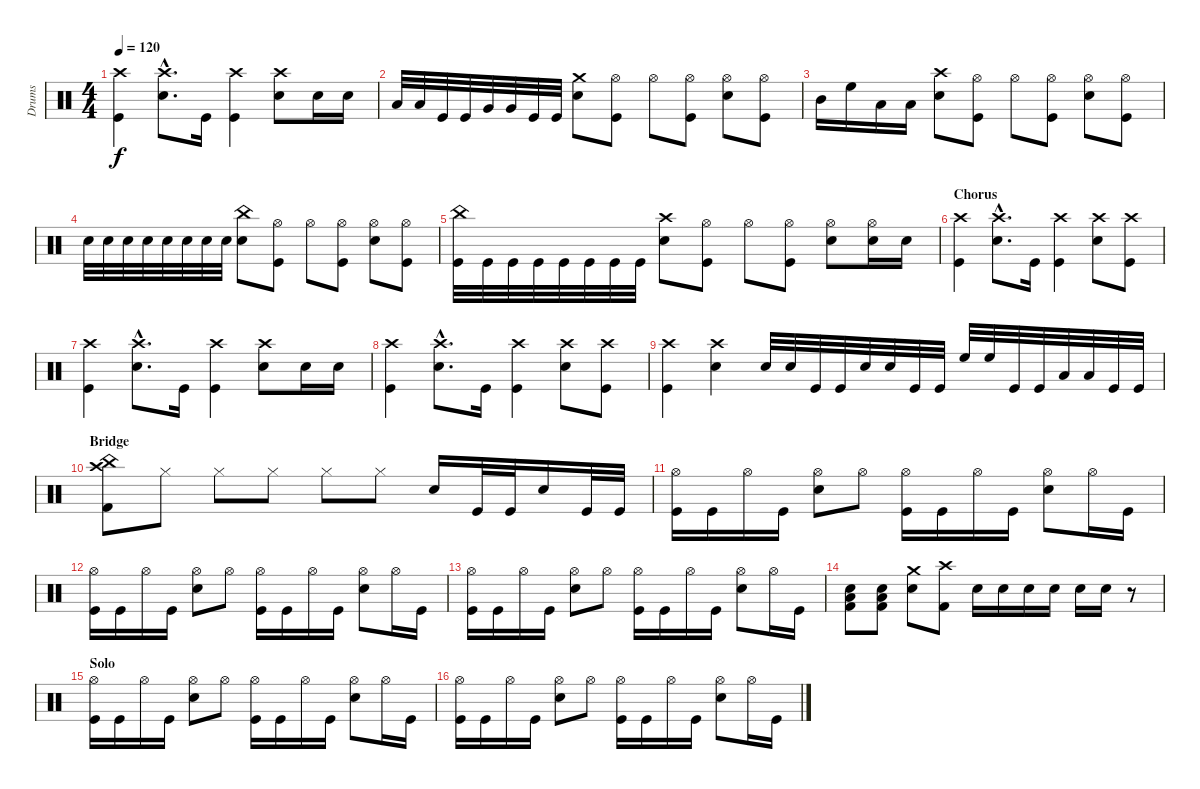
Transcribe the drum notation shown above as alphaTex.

\track ("Drums" "Drums") {instrument percussion}
\staff {score}
\articulation defaults
\ts (4 4)
\tempo 120
\clef neutral
\ks c
("Crash high (hit)" "Kick (hit)").4{dy f} ("Crash high (hit)"{hac} "Electric Snare (hit)"{hac}).8{d} "Kick (hit)".16 ("Crash high (hit)" "Kick (hit)").4 ("Crash high (hit)" "Electric Snare (hit)").8 "Electric Snare (hit)".16 "Electric Snare (hit)".16 |
"Low Tom (hit)".32 "Low Tom (hit)".32 "Kick (hit)".32 "Kick (hit)".32 "Very Low Tom (hit)".32 "Very Low Tom (hit)".32 "Kick (hit)".32 "Kick (hit)".32 ("Crash medium (hit)" "Electric Snare (hit)").8 ("Hi-Hat (open)" "Kick (hit)").8 "Hi-Hat (open)".8 ("Hi-Hat (open)" "Kick (hit)").8 ("Hi-Hat (open)" "Electric Snare (hit)").8 ("Hi-Hat (open)" "Kick (hit)").8 |
"Mid Tom (hit)".16 "High Floor Tom (hit)".16 "Low Tom (hit)".16 "Low Tom (hit)".16 ("Crash high (hit)" "Electric Snare (hit)").8 ("Hi-Hat (open)" "Kick (hit)").8 "Hi-Hat (open)".8 ("Hi-Hat (open)" "Kick (hit)").8 ("Hi-Hat (open)" "Electric Snare (hit)").8 ("Hi-Hat (open)" "Kick (hit)").8 |
"Electric Snare (hit)".32 "Electric Snare (hit)".32 "Electric Snare (hit)".32 "Electric Snare (hit)".32 "Electric Snare (hit)".32 "Electric Snare (hit)".32 "Electric Snare (hit)".32 "Electric Snare (hit)".32 ("China (hit)" "Electric Snare (hit)").8 ("Hi-Hat (open)" "Kick (hit)").8 "Hi-Hat (open)".8 ("Hi-Hat (open)" "Kick (hit)").8 ("Hi-Hat (open)" "Electric Snare (hit)").8 ("Hi-Hat (open)" "Kick (hit)").8 |
("China (hit)" "Kick (hit)").32 "Kick (hit)".32 "Kick (hit)".32 "Kick (hit)".32 "Kick (hit)".32 "Kick (hit)".32 "Kick (hit)".32 "Kick (hit)".32 ("Crash high (hit)" "Electric Snare (hit)").8 ("Hi-Hat (open)" "Kick (hit)").8 "Hi-Hat (open)".8 ("Hi-Hat (open)" "Kick (hit)").8 ("Hi-Hat (open)" "Electric Snare (hit)").8 ("Hi-Hat (open)" "Electric Snare (hit)").16 "Electric Snare (hit)".16 |
\section ("" "Chorus")
("Crash high (hit)" "Kick (hit)").4 ("Crash high (hit)"{hac} "Electric Snare (hit)"{hac}).8{d} "Kick (hit)".16 ("Crash high (hit)" "Kick (hit)").4 ("Crash high (hit)" "Electric Snare (hit)").8 ("Crash high (hit)" "Kick (hit)").8 |
("Crash high (hit)" "Kick (hit)").4 ("Crash high (hit)"{hac} "Electric Snare (hit)"{hac}).8{d} "Kick (hit)".16 ("Crash high (hit)" "Kick (hit)").4 ("Crash high (hit)" "Electric Snare (hit)").8 "Electric Snare (hit)".16 "Electric Snare (hit)".16 |
("Crash high (hit)" "Kick (hit)").4 ("Crash high (hit)"{hac} "Electric Snare (hit)"{hac}).8{d} "Kick (hit)".16 ("Crash high (hit)" "Kick (hit)").4 ("Crash high (hit)" "Electric Snare (hit)").8 ("Crash high (hit)" "Kick (hit)").8 |
("Crash high (hit)" "Kick (hit)").4 ("Crash high (hit)" "Electric Snare (hit)").4 "Electric Snare (hit)".32 "Electric Snare (hit)".32 "Kick (hit)".32 "Kick (hit)".32 "Electric Snare (hit)".32 "Electric Snare (hit)".32 "Kick (hit)".32 "Kick (hit)".32 "High Floor Tom (hit)".32 "High Floor Tom (hit)".32 "Kick (hit)".32 "Kick (hit)".32 "Low Tom (hit)".32 "Low Tom (hit)".32 "Kick (hit)".32 "Kick (hit)".32 |
\section ("" "Bridge")
("China (hit)" "Crash high (hit)" "Kick (hit) 2").8 "Hi-Hat (closed)".8 "Hi-Hat (closed)".8 "Hi-Hat (closed)".8 "Hi-Hat (closed)".8 "Hi-Hat (closed)".8 "Electric Snare (hit)".16 "Kick (hit)".32 "Kick (hit)".32 "Electric Snare (hit)".16 "Kick (hit)".32 "Kick (hit)".32 |
("Hi-Hat (open)" "Kick (hit)").16 "Kick (hit)".16 "Hi-Hat (open)".16 "Kick (hit)".16 ("Hi-Hat (open)" "Electric Snare (hit)").8 "Hi-Hat (open)".8 ("Hi-Hat (open)" "Kick (hit)").16 "Kick (hit)".16 "Hi-Hat (open)".16 "Kick (hit)".16 ("Hi-Hat (open)" "Electric Snare (hit)").8 "Hi-Hat (open)".16 "Kick (hit)".16 |
("Hi-Hat (open)" "Kick (hit)").16 "Kick (hit)".16 "Hi-Hat (open)".16 "Kick (hit)".16 ("Hi-Hat (open)" "Electric Snare (hit)").8 "Hi-Hat (open)".8 ("Hi-Hat (open)" "Kick (hit)").16 "Kick (hit)".16 "Hi-Hat (open)".16 "Kick (hit)".16 ("Hi-Hat (open)" "Electric Snare (hit)").8 "Hi-Hat (open)".16 "Kick (hit)".16 |
("Hi-Hat (open)" "Kick (hit)").16 "Kick (hit)".16 "Hi-Hat (open)".16 "Kick (hit)".16 ("Hi-Hat (open)" "Electric Snare (hit)").8 "Hi-Hat (open)".8 ("Hi-Hat (open)" "Kick (hit)").16 "Kick (hit)".16 "Hi-Hat (open)".16 "Kick (hit)".16 ("Hi-Hat (open)" "Electric Snare (hit)").8 "Hi-Hat (open)".16 "Kick (hit)".16 |
("Electric Snare (hit)" "Low Floor Tom (hit)" "Kick (hit) 2").8 ("Electric Snare (hit)" "Low Floor Tom (hit)" "Kick (hit) 2").8 ("Crash medium (hit)" "Electric Snare (hit)").8 ("Crash high (hit)" "Kick (hit) 2").8 "Electric Snare (hit)".16 "Electric Snare (hit)".16 "Electric Snare (hit)".16 "Electric Snare (hit)".16 "Electric Snare (hit)".16 "Electric Snare (hit)".16 r.8 |
\section ("" "Solo")
("Hi-Hat (open)" "Kick (hit)").16 "Kick (hit)".16 "Hi-Hat (open)".16 "Kick (hit)".16 ("Hi-Hat (open)" "Electric Snare (hit)").8 "Hi-Hat (open)".8 ("Hi-Hat (open)" "Kick (hit)").16 "Kick (hit)".16 "Hi-Hat (open)".16 "Kick (hit)".16 ("Hi-Hat (open)" "Electric Snare (hit)").8 "Hi-Hat (open)".16 "Kick (hit)".16 |
("Hi-Hat (open)" "Kick (hit)").16 "Kick (hit)".16 "Hi-Hat (open)".16 "Kick (hit)".16 ("Hi-Hat (open)" "Electric Snare (hit)").8 "Hi-Hat (open)".8 ("Hi-Hat (open)" "Kick (hit)").16 "Kick (hit)".16 "Hi-Hat (open)".16 "Kick (hit)".16 ("Hi-Hat (open)" "Electric Snare (hit)").8 "Hi-Hat (open)".16 "Kick (hit)".16
